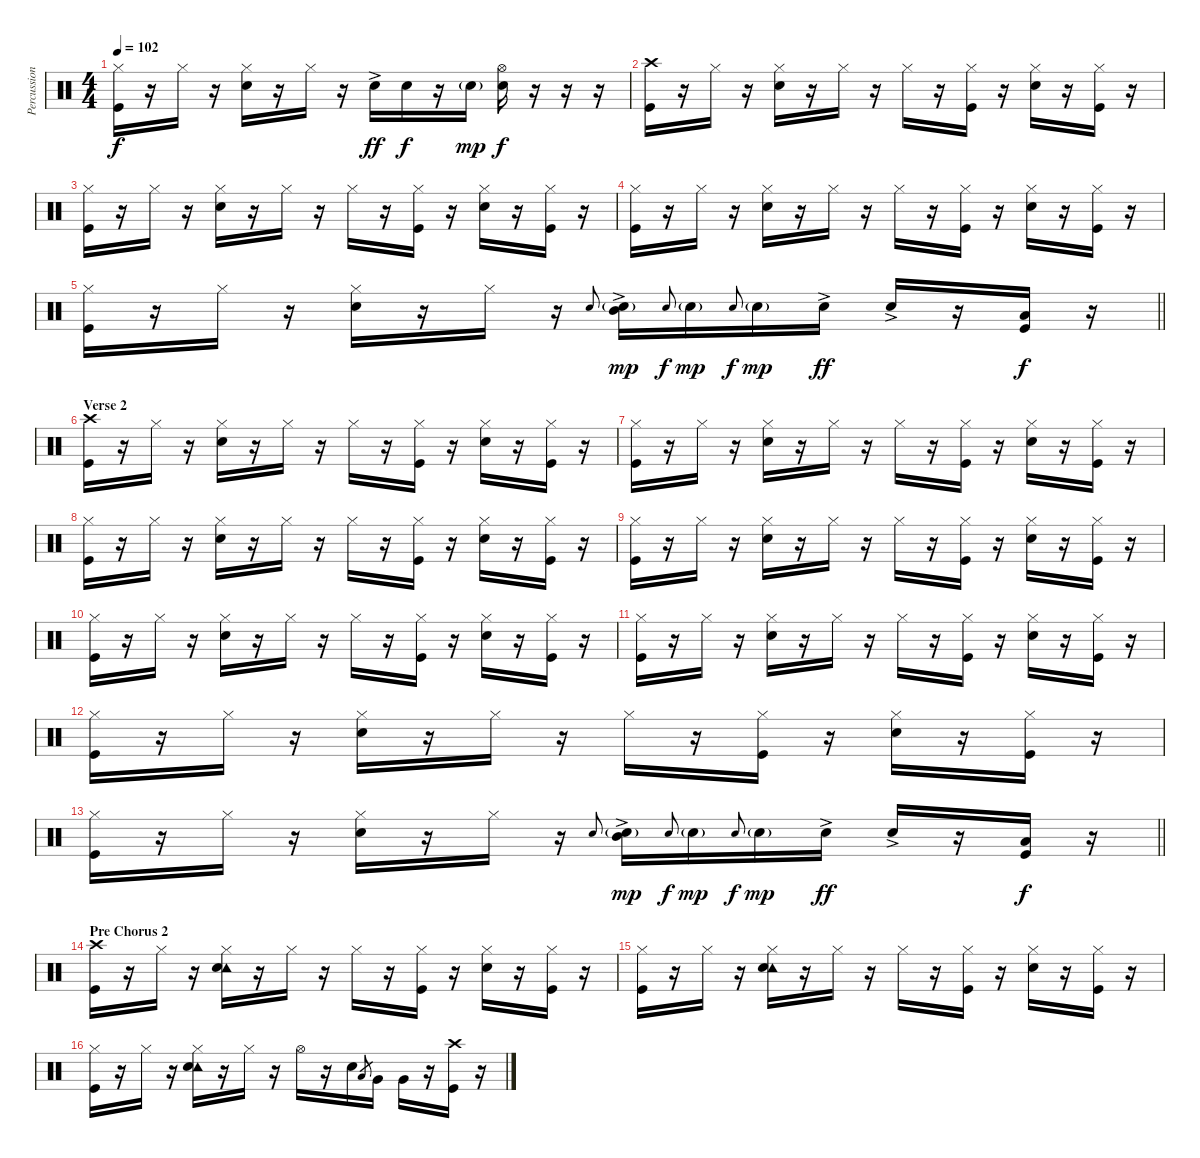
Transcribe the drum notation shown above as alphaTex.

\track ("Percussion" "Percussion") {instrument percussion}
\staff {score}
\articulation defaults
\ts (4 4)
\tempo 102
\clef neutral
\ks c
("Hi-Hat (closed)" "Kick (hit)").16{dy f} r.16 "Hi-Hat (closed)".16 r.16 ("Hi-Hat (closed)" "Snare (hit) 2").16 r.16 "Hi-Hat (closed)".16 r.16 "Snare (hit) 2"{ac}.16{dy ff} "Snare (hit) 2".16{dy f} r.16 "Snare (hit) 2"{g}.16{dy mp} ("Hi-Hat (open)" "Snare (hit) 2").16{dy f} r.16 r.16 r.16 |
("Crash high (hit)" "Kick (hit)").16 r.16 "Hi-Hat (closed)".16 r.16 ("Hi-Hat (closed)" "Snare (hit) 2").16 r.16 "Hi-Hat (closed)".16 r.16 "Hi-Hat (closed)".16 r.16 ("Hi-Hat (closed)" "Kick (hit)").16 r.16 ("Hi-Hat (closed)" "Snare (hit) 2").16 r.16 ("Hi-Hat (closed)" "Kick (hit)").16 r.16 |
("Hi-Hat (closed)" "Kick (hit)").16 r.16 "Hi-Hat (closed)".16 r.16 ("Hi-Hat (closed)" "Snare (hit) 2").16 r.16 "Hi-Hat (closed)".16 r.16 "Hi-Hat (closed)".16 r.16 ("Hi-Hat (closed)" "Kick (hit)").16 r.16 ("Hi-Hat (closed)" "Snare (hit) 2").16 r.16 ("Hi-Hat (closed)" "Kick (hit)").16 r.16 |
("Hi-Hat (closed)" "Kick (hit)").16 r.16 "Hi-Hat (closed)".16 r.16 ("Hi-Hat (closed)" "Snare (hit) 2").16 r.16 "Hi-Hat (closed)".16 r.16 "Hi-Hat (closed)".16 r.16 ("Hi-Hat (closed)" "Kick (hit)").16 r.16 ("Hi-Hat (closed)" "Snare (hit) 2").16 r.16 ("Hi-Hat (closed)" "Kick (hit)").16 r.16 |
\barLineRight lightlight
("Hi-Hat (closed)" "Kick (hit)").16 r.16 "Hi-Hat (closed)".16 r.16 ("Hi-Hat (closed)" "Snare (hit) 2").16 r.16 "Hi-Hat (closed)".16 r.16 "Snare (hit) 2".8{gr onbeat} ("Mid Tom (hit)"{ac} "Snare (hit) 2"{g}).16{dy mp} "Snare (hit) 2".8{gr onbeat dy f} "Snare (hit) 2"{g}.16{dy mp} "Snare (hit) 2".8{gr onbeat dy f} "Snare (hit) 2"{g}.16{dy mp} "Snare (hit) 2"{ac}.16{dy ff} "Snare (hit) 2"{ac}.16 r.16 ("Low Tom (hit)" "Kick (hit)").16{dy f} r.16 |
\section ("" "Verse 2")
("Crash high (hit)" "Kick (hit)").16 r.16 "Hi-Hat (closed)".16 r.16 ("Hi-Hat (closed)" "Snare (hit) 2").16 r.16 "Hi-Hat (closed)".16 r.16 "Hi-Hat (closed)".16 r.16 ("Hi-Hat (closed)" "Kick (hit)").16 r.16 ("Hi-Hat (closed)" "Snare (hit) 2").16 r.16 ("Hi-Hat (closed)" "Kick (hit)").16 r.16 |
("Hi-Hat (closed)" "Kick (hit)").16 r.16 "Hi-Hat (closed)".16 r.16 ("Hi-Hat (closed)" "Snare (hit) 2").16 r.16 "Hi-Hat (closed)".16 r.16 "Hi-Hat (closed)".16 r.16 ("Hi-Hat (closed)" "Kick (hit)").16 r.16 ("Hi-Hat (closed)" "Snare (hit) 2").16 r.16 ("Hi-Hat (closed)" "Kick (hit)").16 r.16 |
("Hi-Hat (closed)" "Kick (hit)").16 r.16 "Hi-Hat (closed)".16 r.16 ("Hi-Hat (closed)" "Snare (hit) 2").16 r.16 "Hi-Hat (closed)".16 r.16 "Hi-Hat (closed)".16 r.16 ("Hi-Hat (closed)" "Kick (hit)").16 r.16 ("Hi-Hat (closed)" "Snare (hit) 2").16 r.16 ("Hi-Hat (closed)" "Kick (hit)").16 r.16 |
("Hi-Hat (closed)" "Kick (hit)").16 r.16 "Hi-Hat (closed)".16 r.16 ("Hi-Hat (closed)" "Snare (hit) 2").16 r.16 "Hi-Hat (closed)".16 r.16 "Hi-Hat (closed)".16 r.16 ("Hi-Hat (closed)" "Kick (hit)").16 r.16 ("Hi-Hat (closed)" "Snare (hit) 2").16 r.16 ("Hi-Hat (closed)" "Kick (hit)").16 r.16 |
("Hi-Hat (closed)" "Kick (hit)").16 r.16 "Hi-Hat (closed)".16 r.16 ("Hi-Hat (closed)" "Snare (hit) 2").16 r.16 "Hi-Hat (closed)".16 r.16 "Hi-Hat (closed)".16 r.16 ("Hi-Hat (closed)" "Kick (hit)").16 r.16 ("Hi-Hat (closed)" "Snare (hit) 2").16 r.16 ("Hi-Hat (closed)" "Kick (hit)").16 r.16 |
("Hi-Hat (closed)" "Kick (hit)").16 r.16 "Hi-Hat (closed)".16 r.16 ("Hi-Hat (closed)" "Snare (hit) 2").16 r.16 "Hi-Hat (closed)".16 r.16 "Hi-Hat (closed)".16 r.16 ("Hi-Hat (closed)" "Kick (hit)").16 r.16 ("Hi-Hat (closed)" "Snare (hit) 2").16 r.16 ("Hi-Hat (closed)" "Kick (hit)").16 r.16 |
("Hi-Hat (closed)" "Kick (hit)").16 r.16 "Hi-Hat (closed)".16 r.16 ("Hi-Hat (closed)" "Snare (hit) 2").16 r.16 "Hi-Hat (closed)".16 r.16 "Hi-Hat (closed)".16 r.16 ("Hi-Hat (closed)" "Kick (hit)").16 r.16 ("Hi-Hat (closed)" "Snare (hit) 2").16 r.16 ("Hi-Hat (closed)" "Kick (hit)").16 r.16 |
\barLineRight lightlight
("Hi-Hat (closed)" "Kick (hit)").16 r.16 "Hi-Hat (closed)".16 r.16 ("Hi-Hat (closed)" "Snare (hit) 2").16 r.16 "Hi-Hat (closed)".16 r.16 "Snare (hit) 2".8{gr onbeat} ("Mid Tom (hit)"{ac} "Snare (hit) 2"{g}).16{dy mp} "Snare (hit) 2".8{gr onbeat dy f} "Snare (hit) 2"{g}.16{dy mp} "Snare (hit) 2".8{gr onbeat dy f} "Snare (hit) 2"{g}.16{dy mp} "Snare (hit) 2"{ac}.16{dy ff} "Snare (hit) 2"{ac}.16 r.16 ("Low Tom (hit)" "Kick (hit)").16{dy f} r.16 |
\section ("" "Pre Chorus 2")
("Crash high (hit)" "Kick (hit)").16 r.16 "Hi-Hat (closed)".16 r.16 ("Tambourine (hit)" "Hi-Hat (closed)" "Snare (hit) 2").16 r.16 "Hi-Hat (closed)".16 r.16 "Hi-Hat (closed)".16 r.16 ("Hi-Hat (closed)" "Kick (hit)").16 r.16 ("Hi-Hat (closed)" "Snare (hit) 2").16 r.16 ("Hi-Hat (closed)" "Kick (hit)").16 r.16 |
("Hi-Hat (closed)" "Kick (hit)").16 r.16 "Hi-Hat (closed)".16 r.16 ("Tambourine (hit)" "Hi-Hat (closed)" "Snare (hit) 2").16 r.16 "Hi-Hat (closed)".16 r.16 "Hi-Hat (closed)".16 r.16 ("Hi-Hat (closed)" "Kick (hit)").16 r.16 ("Hi-Hat (closed)" "Snare (hit) 2").16 r.16 ("Hi-Hat (closed)" "Kick (hit)").16 r.16 |
("Hi-Hat (closed)" "Kick (hit)").16 r.16 "Hi-Hat (closed)".16 r.16 ("Tambourine (hit)" "Hi-Hat (closed)" "Snare (hit) 2").16 r.16 "Hi-Hat (closed)".16 r.16 "Hi-Hat (open)".16 r.16 "Snare (hit) 2".16 "Low Tom (hit)".8{gr} "Very Low Tom (hit)".16 "Very Low Tom (hit)".16 r.16 ("Crash high (hit)" "Kick (hit)").16 r.16
